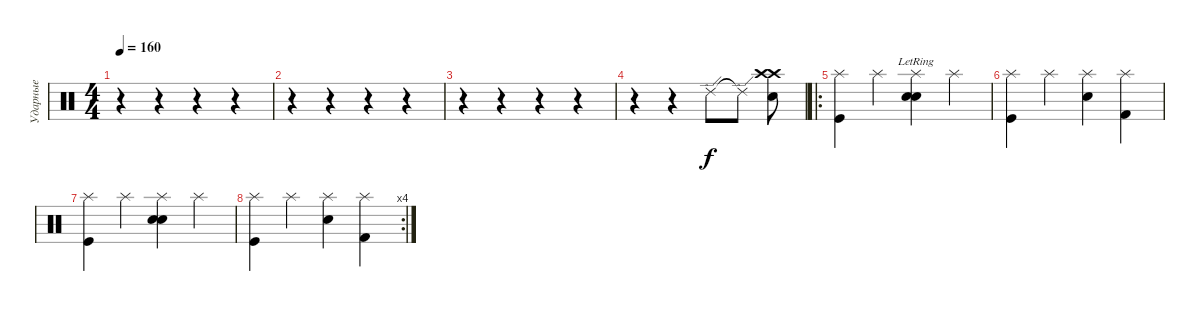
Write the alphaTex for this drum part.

\track ("Ударные" "Ударные") {instrument percussion}
\staff {score}
\articulation defaults
\ts (4 4)
\tempo 160
\clef neutral
\ks c
r.4{dy f} r.4 r.4 r.4 |
r.4 r.4 r.4 r.4 |
r.4 r.4 r.4 r.4 |
r.4 r.4 "Ride (edge) 2".8 "Ride (edge) 2"{t}.8 ("Crash high (hit)" "Crash high (hit)" "Electric Snare (hit)").8 |
\ro
("Splash (hit)" "Kick (hit)").4 "Splash (hit)".4 ("Splash (hit)" "Electric Snare (hit)"{lr} "Electric Snare (hit)").4 "Splash (hit)".4 |
("Splash (hit)" "Kick (hit)").4 "Splash (hit)".4 ("Splash (hit)" "Electric Snare (hit)").4 ("Splash (hit)" "Kick (hit) 2").4 |
("Splash (hit)" "Kick (hit)").4 "Splash (hit)".4 ("Splash (hit)" "Electric Snare (hit)" "Electric Snare (hit)").4 "Splash (hit)".4 |
\rc 4
("Splash (hit)" "Kick (hit)").4 "Splash (hit)".4 ("Splash (hit)" "Electric Snare (hit)").4 ("Splash (hit)" "Kick (hit) 2").4
